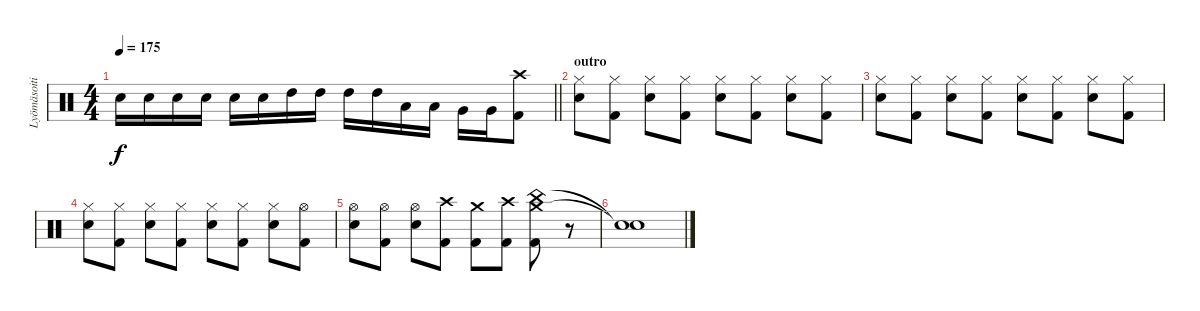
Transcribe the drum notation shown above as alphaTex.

\track ("Lyömäsoitin" "Lyömäsoiti") {instrument percussion}
\staff {score}
\articulation defaults
\ts (4 4)
\tempo 175
\clef neutral
\barLineRight lightlight
\ks c "Electric Snare (hit)".16{dy f} "Electric Snare (hit)".16 "Electric Snare (hit)".16 "Electric Snare (hit)".16 "Electric Snare (hit)".16 "Electric Snare (hit)".16 "High Tom (hit)".16 "High Tom (hit)".16 "High Tom (hit)".16 "High Tom (hit)".16 "Low Tom (hit)".16 "Low Tom (hit)".16 "Very Low Tom (hit)".16 "Very Low Tom (hit)".16
("Crash high (hit)" "Kick (hit) 2").8 |
\section ("" "outro")
("Hi-Hat (closed)" "Electric Snare (hit)").8 ("Hi-Hat (closed)" "Kick (hit) 2").8 ("Hi-Hat (closed)" "Electric Snare (hit)").8 ("Hi-Hat (closed)" "Kick (hit) 2").8 ("Hi-Hat (closed)" "Electric Snare (hit)").8 ("Hi-Hat (closed)" "Kick (hit) 2").8 ("Hi-Hat (closed)" "Electric Snare (hit)").8 ("Hi-Hat (closed)" "Kick (hit) 2").8 |
("Hi-Hat (closed)" "Electric Snare (hit)").8 ("Hi-Hat (closed)" "Kick (hit) 2").8 ("Hi-Hat (closed)" "Electric Snare (hit)").8 ("Hi-Hat (closed)" "Kick (hit) 2").8 ("Hi-Hat (closed)" "Electric Snare (hit)").8 ("Hi-Hat (closed)" "Kick (hit) 2").8 ("Hi-Hat (closed)" "Electric Snare (hit)").8 ("Hi-Hat (closed)" "Kick (hit) 2").8 |
("Hi-Hat (closed)" "Electric Snare (hit)").8 ("Hi-Hat (closed)" "Kick (hit) 2").8 ("Hi-Hat (closed)" "Electric Snare (hit)").8 ("Hi-Hat (closed)" "Kick (hit) 2").8 ("Hi-Hat (closed)" "Electric Snare (hit)").8 ("Hi-Hat (closed)" "Kick (hit) 2").8 ("Hi-Hat (closed)" "Electric Snare (hit)").8 ("Hi-Hat (open)" "Kick (hit) 2").8 |
("Hi-Hat (open)" "Electric Snare (hit)").8 ("Hi-Hat (open)" "Kick (hit) 2").8 ("Hi-Hat (open)" "Electric Snare (hit)").8 ("Crash high (hit)" "Kick (hit) 2").8 ("Crash medium (hit)" "Kick (hit) 2").8 ("Crash high (hit)" "Kick (hit) 2").8 ("Crash medium (hit)" "China (hit)" "Kick (hit) 2").8 r.8 |
("Snare (hit)"{t} "Snare (hit)"{t}).1
